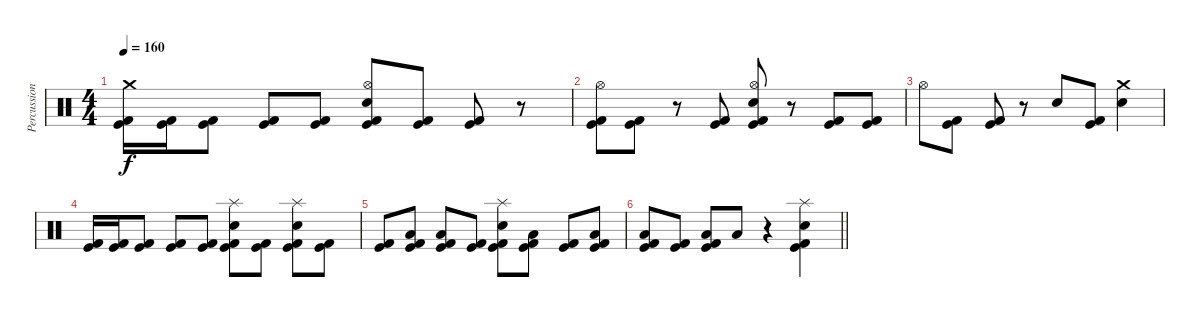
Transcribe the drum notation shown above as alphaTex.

\track ("Percussion" "Percussion") {instrument percussion}
\staff {score}
\articulation defaults
\ts (4 4)
\tempo 160
\clef neutral
\ks c
("Crash medium (hit)" "Kick (hit)" "Kick (hit) 2").16{dy f} ("Kick (hit)" "Kick (hit) 2").16 ("Kick (hit)" "Kick (hit) 2").8 ("Kick (hit)" "Kick (hit) 2").8 ("Kick (hit)" "Kick (hit) 2").8 ("Hi-Hat (open)" "Electric Snare (hit)" "Kick (hit)" "Kick (hit) 2").8 ("Kick (hit)" "Kick (hit) 2").8 ("Kick (hit)" "Kick (hit) 2").8 r.8 |
("Hi-Hat (open)" "Kick (hit)" "Kick (hit) 2").8 ("Kick (hit)" "Kick (hit) 2").8 r.8 ("Kick (hit)" "Kick (hit) 2").8 ("Hi-Hat (open)" "Electric Snare (hit)" "Kick (hit)" "Kick (hit) 2").8 r.8 ("Kick (hit)" "Kick (hit) 2").8 ("Kick (hit)" "Kick (hit) 2").8 |
"Hi-Hat (open)".8 ("Kick (hit)" "Kick (hit) 2").8 ("Kick (hit)" "Kick (hit) 2").8 r.8 "Electric Snare (hit)".8 ("Kick (hit)" "Kick (hit) 2").8 ("Crash medium (hit)" "Electric Snare (hit)").4 |
("Kick (hit)" "Kick (hit) 2").16 ("Kick (hit)" "Kick (hit) 2").16 ("Kick (hit)" "Kick (hit) 2").8 ("Kick (hit)" "Kick (hit) 2").8 ("Kick (hit)" "Kick (hit) 2").8 ("Splash (hit)" "Electric Snare (hit)" "Kick (hit)" "Kick (hit) 2").8 ("Kick (hit)" "Kick (hit) 2").8 ("Splash (hit)" "Electric Snare (hit)" "Kick (hit)" "Kick (hit) 2").8 ("Kick (hit)" "Kick (hit) 2").8 |
("Kick (hit)" "Kick (hit) 2").8 ("Low Floor Tom (hit)" "Kick (hit)" "Kick (hit) 2").8 ("Low Floor Tom (hit)" "Kick (hit)" "Kick (hit) 2").8 ("Kick (hit)" "Kick (hit) 2").8 ("Splash (hit)" "Electric Snare (hit)" "Kick (hit)" "Kick (hit) 2").8 ("Low Floor Tom (hit)" "Kick (hit)" "Kick (hit) 2").8 ("Kick (hit)" "Kick (hit) 2").8 ("Low Floor Tom (hit)" "Kick (hit)" "Kick (hit) 2").8 |
\barLineRight lightlight
("Low Floor Tom (hit)" "Kick (hit)" "Kick (hit) 2").8 ("Kick (hit)" "Kick (hit) 2").8 ("Low Floor Tom (hit)" "Kick (hit)" "Kick (hit) 2").8 "Low Floor Tom (hit)".8 r.4 ("Splash (hit)" "Electric Snare (hit)" "Kick (hit)" "Kick (hit) 2").4
